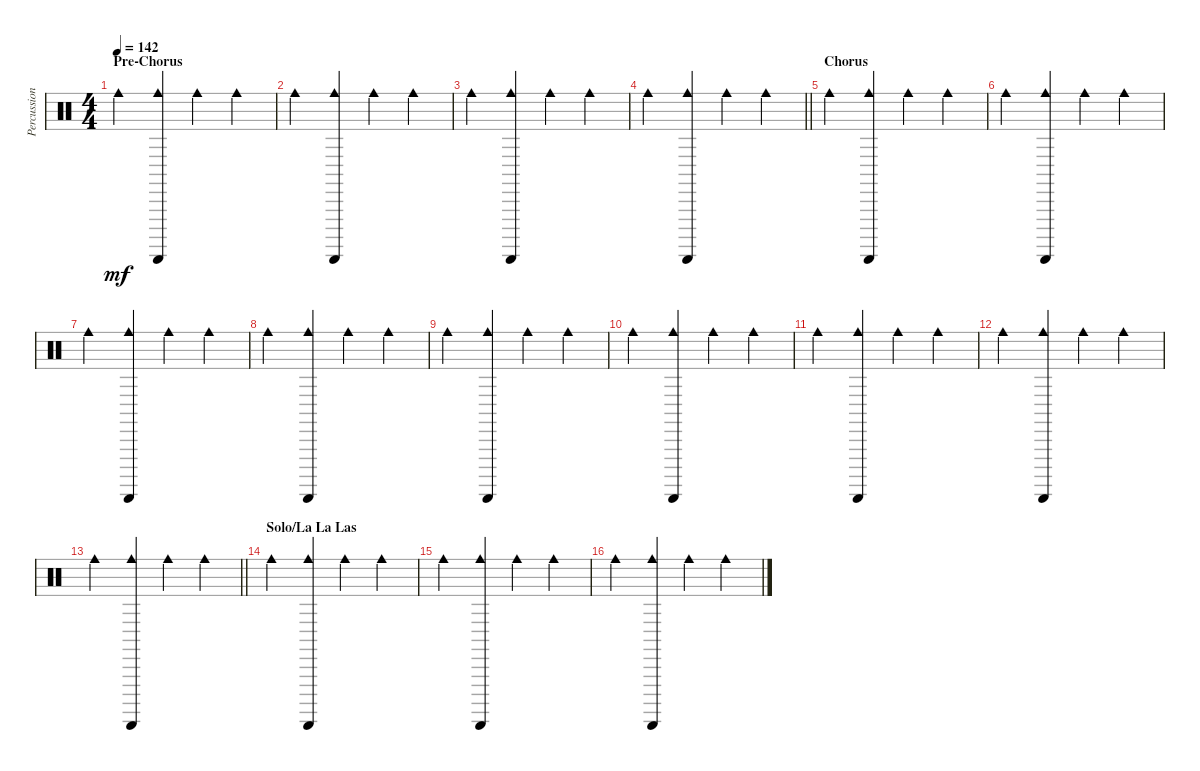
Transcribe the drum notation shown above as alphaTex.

\track ("Percussion" "Percussion") {instrument percussion}
\staff {score}
\articulation defaults
\ts (4 4)
\section ("" "Pre-Chorus")
\tempo 142
\clef neutral
\ks c "Cowbell medium (hit)".4{dy mf}
("Guiro (scrap-return)" "Cowbell medium (hit)").4 "Cowbell medium (hit)".4 "Cowbell medium (hit)".4 |
"Cowbell medium (hit)".4 ("Guiro (scrap-return)" "Cowbell medium (hit)").4 "Cowbell medium (hit)".4 "Cowbell medium (hit)".4 |
"Cowbell medium (hit)".4 ("Guiro (scrap-return)" "Cowbell medium (hit)").4 "Cowbell medium (hit)".4 "Cowbell medium (hit)".4 |
\barLineRight lightlight "Cowbell medium (hit)".4
("Guiro (scrap-return)" "Cowbell medium (hit)").4 "Cowbell medium (hit)".4 "Cowbell medium (hit)".4 |
\section ("" "Chorus")
"Cowbell medium (hit)".4 ("Guiro (scrap-return)" "Cowbell medium (hit)").4 "Cowbell medium (hit)".4 "Cowbell medium (hit)".4 |
"Cowbell medium (hit)".4 ("Guiro (scrap-return)" "Cowbell medium (hit)").4 "Cowbell medium (hit)".4 "Cowbell medium (hit)".4 |
"Cowbell medium (hit)".4 ("Guiro (scrap-return)" "Cowbell medium (hit)").4 "Cowbell medium (hit)".4 "Cowbell medium (hit)".4 |
"Cowbell medium (hit)".4 ("Guiro (scrap-return)" "Cowbell medium (hit)").4 "Cowbell medium (hit)".4 "Cowbell medium (hit)".4 |
"Cowbell medium (hit)".4 ("Guiro (scrap-return)" "Cowbell medium (hit)").4 "Cowbell medium (hit)".4 "Cowbell medium (hit)".4 |
"Cowbell medium (hit)".4 ("Guiro (scrap-return)" "Cowbell medium (hit)").4 "Cowbell medium (hit)".4 "Cowbell medium (hit)".4 |
"Cowbell medium (hit)".4 ("Guiro (scrap-return)" "Cowbell medium (hit)").4 "Cowbell medium (hit)".4 "Cowbell medium (hit)".4 |
"Cowbell medium (hit)".4 ("Guiro (scrap-return)" "Cowbell medium (hit)").4 "Cowbell medium (hit)".4 "Cowbell medium (hit)".4 |
\barLineRight lightlight "Cowbell medium (hit)".4
("Guiro (scrap-return)" "Cowbell medium (hit)").4 "Cowbell medium (hit)".4 "Cowbell medium (hit)".4 |
\section ("" "Solo/La La Las")
"Cowbell medium (hit)".4 ("Guiro (scrap-return)" "Cowbell medium (hit)").4 "Cowbell medium (hit)".4 "Cowbell medium (hit)".4 |
"Cowbell medium (hit)".4 ("Guiro (scrap-return)" "Cowbell medium (hit)").4 "Cowbell medium (hit)".4 "Cowbell medium (hit)".4 |
"Cowbell medium (hit)".4 ("Guiro (scrap-return)" "Cowbell medium (hit)").4 "Cowbell medium (hit)".4 "Cowbell medium (hit)".4
